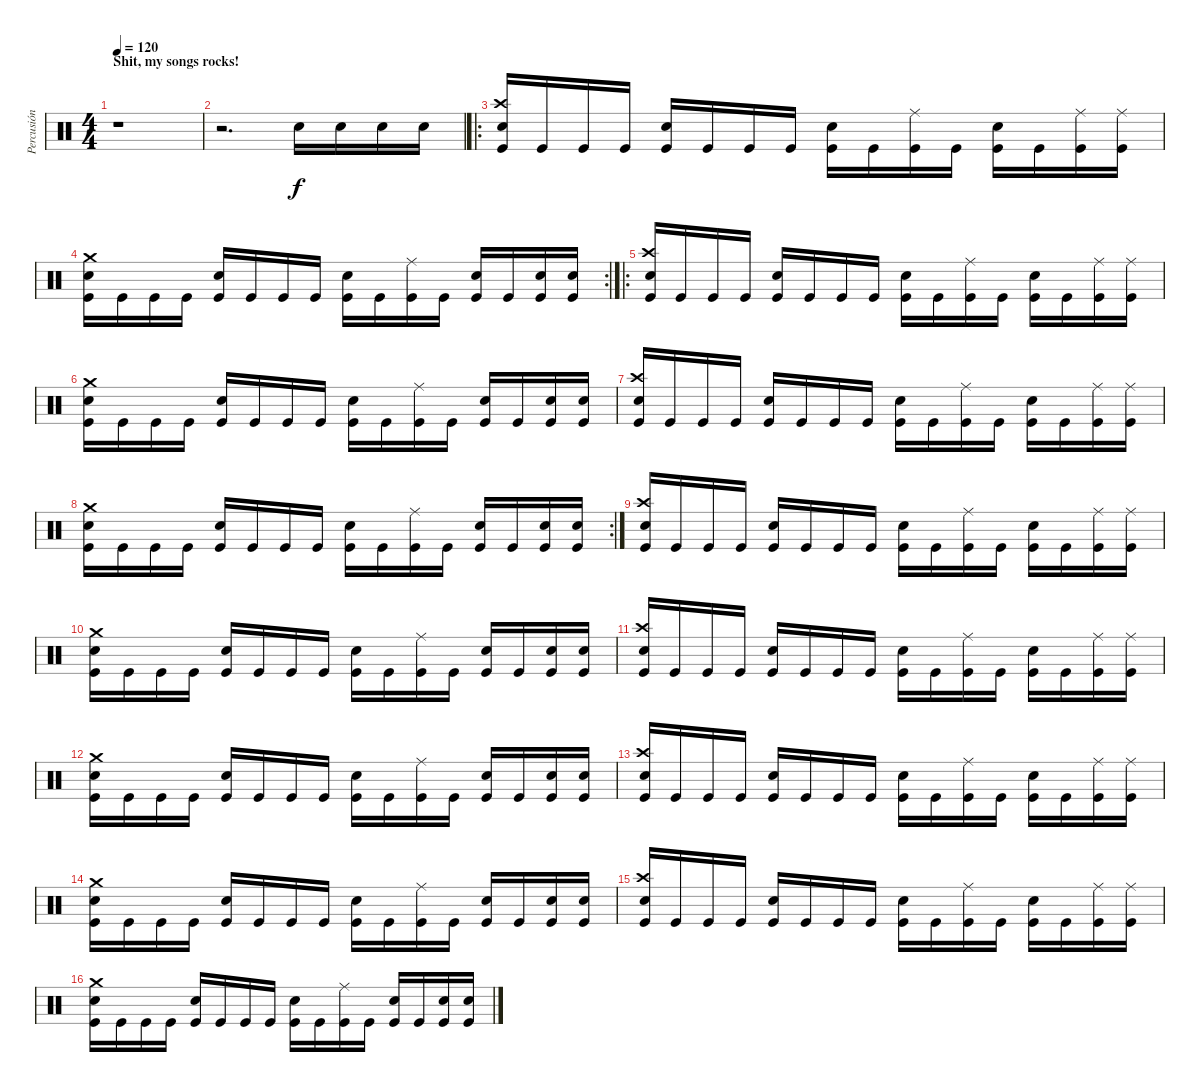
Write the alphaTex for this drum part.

\track ("Percusión" "Percusión") {instrument percussion}
\staff {score}
\articulation defaults
\ts (4 4)
\section ("" "Shit, my songs rocks!")
\tempo 120
\clef neutral
\ks c
r.1{dy f} |
r.2{d} "Electric Snare (hit)".16 "Electric Snare (hit)".16 "Electric Snare (hit)".16 "Electric Snare (hit)".16 |
\ro
("Crash high (hit)" "Electric Snare (hit)" "Kick (hit)").16 "Kick (hit)".16 "Kick (hit)".16 "Kick (hit)".16 ("Electric Snare (hit)" "Kick (hit)").16 "Kick (hit)".16 "Kick (hit)".16 "Kick (hit)".16 ("Electric Snare (hit)" "Kick (hit)").16 "Kick (hit)".16 ("Ride (middle)" "Kick (hit)").16 "Kick (hit)".16 ("Electric Snare (hit)" "Kick (hit)").16 "Kick (hit)".16 ("Ride (middle)" "Kick (hit)").16 ("Ride (middle)" "Kick (hit)").16 |
\rc 2
("Crash medium (hit)" "Electric Snare (hit)" "Kick (hit)").16 "Kick (hit)".16 "Kick (hit)".16 "Kick (hit)".16 ("Electric Snare (hit)" "Kick (hit)").16 "Kick (hit)".16 "Kick (hit)".16 "Kick (hit)".16 ("Electric Snare (hit)" "Kick (hit)").16 "Kick (hit)".16 ("Ride (middle)" "Kick (hit)").16 "Kick (hit)".16 ("Electric Snare (hit)" "Kick (hit)").16 "Kick (hit)".16 ("Electric Snare (hit)" "Kick (hit)").16 ("Electric Snare (hit)" "Kick (hit)").16 |
\ro
("Crash high (hit)" "Electric Snare (hit)" "Kick (hit)").16 "Kick (hit)".16 "Kick (hit)".16 "Kick (hit)".16 ("Electric Snare (hit)" "Kick (hit)").16 "Kick (hit)".16 "Kick (hit)".16 "Kick (hit)".16 ("Electric Snare (hit)" "Kick (hit)").16 "Kick (hit)".16 ("Ride (middle)" "Kick (hit)").16 "Kick (hit)".16 ("Electric Snare (hit)" "Kick (hit)").16 "Kick (hit)".16 ("Ride (middle)" "Kick (hit)").16 ("Ride (middle)" "Kick (hit)").16 |
("Crash medium (hit)" "Electric Snare (hit)" "Kick (hit)").16 "Kick (hit)".16 "Kick (hit)".16 "Kick (hit)".16 ("Electric Snare (hit)" "Kick (hit)").16 "Kick (hit)".16 "Kick (hit)".16 "Kick (hit)".16 ("Electric Snare (hit)" "Kick (hit)").16 "Kick (hit)".16 ("Ride (middle)" "Kick (hit)").16 "Kick (hit)".16 ("Electric Snare (hit)" "Kick (hit)").16 "Kick (hit)".16 ("Electric Snare (hit)" "Kick (hit)").16 ("Electric Snare (hit)" "Kick (hit)").16 |
("Crash high (hit)" "Electric Snare (hit)" "Kick (hit)").16 "Kick (hit)".16 "Kick (hit)".16 "Kick (hit)".16 ("Electric Snare (hit)" "Kick (hit)").16 "Kick (hit)".16 "Kick (hit)".16 "Kick (hit)".16 ("Electric Snare (hit)" "Kick (hit)").16 "Kick (hit)".16 ("Ride (middle)" "Kick (hit)").16 "Kick (hit)".16 ("Electric Snare (hit)" "Kick (hit)").16 "Kick (hit)".16 ("Ride (middle)" "Kick (hit)").16 ("Ride (middle)" "Kick (hit)").16 |
\rc 2
("Crash medium (hit)" "Electric Snare (hit)" "Kick (hit)").16 "Kick (hit)".16 "Kick (hit)".16 "Kick (hit)".16 ("Electric Snare (hit)" "Kick (hit)").16 "Kick (hit)".16 "Kick (hit)".16 "Kick (hit)".16 ("Electric Snare (hit)" "Kick (hit)").16 "Kick (hit)".16 ("Ride (middle)" "Kick (hit)").16 "Kick (hit)".16 ("Electric Snare (hit)" "Kick (hit)").16 "Kick (hit)".16 ("Electric Snare (hit)" "Kick (hit)").16 ("Electric Snare (hit)" "Kick (hit)").16 |
("Crash high (hit)" "Electric Snare (hit)" "Kick (hit)").16 "Kick (hit)".16 "Kick (hit)".16 "Kick (hit)".16 ("Electric Snare (hit)" "Kick (hit)").16 "Kick (hit)".16 "Kick (hit)".16 "Kick (hit)".16 ("Electric Snare (hit)" "Kick (hit)").16 "Kick (hit)".16 ("Ride (middle)" "Kick (hit)").16 "Kick (hit)".16 ("Electric Snare (hit)" "Kick (hit)").16 "Kick (hit)".16 ("Ride (middle)" "Kick (hit)").16 ("Ride (middle)" "Kick (hit)").16 |
("Crash medium (hit)" "Electric Snare (hit)" "Kick (hit)").16 "Kick (hit)".16 "Kick (hit)".16 "Kick (hit)".16 ("Electric Snare (hit)" "Kick (hit)").16 "Kick (hit)".16 "Kick (hit)".16 "Kick (hit)".16 ("Electric Snare (hit)" "Kick (hit)").16 "Kick (hit)".16 ("Ride (middle)" "Kick (hit)").16 "Kick (hit)".16 ("Electric Snare (hit)" "Kick (hit)").16 "Kick (hit)".16 ("Electric Snare (hit)" "Kick (hit)").16 ("Electric Snare (hit)" "Kick (hit)").16 |
("Crash high (hit)" "Electric Snare (hit)" "Kick (hit)").16 "Kick (hit)".16 "Kick (hit)".16 "Kick (hit)".16 ("Electric Snare (hit)" "Kick (hit)").16 "Kick (hit)".16 "Kick (hit)".16 "Kick (hit)".16 ("Electric Snare (hit)" "Kick (hit)").16 "Kick (hit)".16 ("Ride (middle)" "Kick (hit)").16 "Kick (hit)".16 ("Electric Snare (hit)" "Kick (hit)").16 "Kick (hit)".16 ("Ride (middle)" "Kick (hit)").16 ("Ride (middle)" "Kick (hit)").16 |
("Crash medium (hit)" "Electric Snare (hit)" "Kick (hit)").16 "Kick (hit)".16 "Kick (hit)".16 "Kick (hit)".16 ("Electric Snare (hit)" "Kick (hit)").16 "Kick (hit)".16 "Kick (hit)".16 "Kick (hit)".16 ("Electric Snare (hit)" "Kick (hit)").16 "Kick (hit)".16 ("Ride (middle)" "Kick (hit)").16 "Kick (hit)".16 ("Electric Snare (hit)" "Kick (hit)").16 "Kick (hit)".16 ("Electric Snare (hit)" "Kick (hit)").16 ("Electric Snare (hit)" "Kick (hit)").16 |
("Crash high (hit)" "Electric Snare (hit)" "Kick (hit)").16 "Kick (hit)".16 "Kick (hit)".16 "Kick (hit)".16 ("Electric Snare (hit)" "Kick (hit)").16 "Kick (hit)".16 "Kick (hit)".16 "Kick (hit)".16 ("Electric Snare (hit)" "Kick (hit)").16 "Kick (hit)".16 ("Ride (middle)" "Kick (hit)").16 "Kick (hit)".16 ("Electric Snare (hit)" "Kick (hit)").16 "Kick (hit)".16 ("Ride (middle)" "Kick (hit)").16 ("Ride (middle)" "Kick (hit)").16 |
("Crash medium (hit)" "Electric Snare (hit)" "Kick (hit)").16 "Kick (hit)".16 "Kick (hit)".16 "Kick (hit)".16 ("Electric Snare (hit)" "Kick (hit)").16 "Kick (hit)".16 "Kick (hit)".16 "Kick (hit)".16 ("Electric Snare (hit)" "Kick (hit)").16 "Kick (hit)".16 ("Ride (middle)" "Kick (hit)").16 "Kick (hit)".16 ("Electric Snare (hit)" "Kick (hit)").16 "Kick (hit)".16 ("Electric Snare (hit)" "Kick (hit)").16 ("Electric Snare (hit)" "Kick (hit)").16 |
("Crash high (hit)" "Electric Snare (hit)" "Kick (hit)").16 "Kick (hit)".16 "Kick (hit)".16 "Kick (hit)".16 ("Electric Snare (hit)" "Kick (hit)").16 "Kick (hit)".16 "Kick (hit)".16 "Kick (hit)".16 ("Electric Snare (hit)" "Kick (hit)").16 "Kick (hit)".16 ("Ride (middle)" "Kick (hit)").16 "Kick (hit)".16 ("Electric Snare (hit)" "Kick (hit)").16 "Kick (hit)".16 ("Ride (middle)" "Kick (hit)").16 ("Ride (middle)" "Kick (hit)").16 |
("Crash medium (hit)" "Electric Snare (hit)" "Kick (hit)").16 "Kick (hit)".16 "Kick (hit)".16 "Kick (hit)".16 ("Electric Snare (hit)" "Kick (hit)").16 "Kick (hit)".16 "Kick (hit)".16 "Kick (hit)".16 ("Electric Snare (hit)" "Kick (hit)").16 "Kick (hit)".16 ("Ride (middle)" "Kick (hit)").16 "Kick (hit)".16 ("Electric Snare (hit)" "Kick (hit)").16 "Kick (hit)".16 ("Electric Snare (hit)" "Kick (hit)").16 ("Electric Snare (hit)" "Kick (hit)").16
